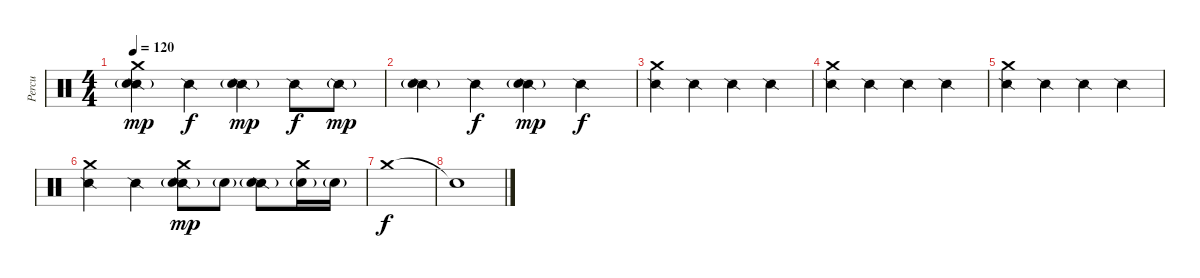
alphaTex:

\track ("Percu" "Percu") {instrument percussion}
\staff {score}
\articulation defaults
\ts (4 4)
\tempo 120
\clef neutral
\ks c
("Snare (side stick) 2" "Crash medium (hit)" "Electric Snare (hit)"{g}).4{dy mp} "Snare (side stick) 2".4{dy f} ("Snare (side stick) 2" "Electric Snare (hit)"{g}).4{dy mp} "Snare (side stick) 2".8{dy f} "Snare (side stick) 2"{g}.8{dy mp} |
("Snare (side stick) 2" "Electric Snare (hit)"{g}).4 "Snare (side stick) 2".4{dy f} ("Snare (side stick) 2" "Electric Snare (hit)"{g}).4{dy mp} "Snare (side stick) 2".4{dy f} |
("Snare (side stick) 2" "Crash medium (hit)").4 "Snare (side stick) 2".4 "Snare (side stick) 2".4 "Snare (side stick) 2".4 |
("Snare (side stick) 2" "Crash medium (hit)").4 "Snare (side stick) 2".4 "Snare (side stick) 2".4 "Snare (side stick) 2".4 |
("Snare (side stick) 2" "Crash medium (hit)").4 "Snare (side stick) 2".4 "Snare (side stick) 2".4 "Snare (side stick) 2".4 |
("Snare (side stick) 2" "Crash medium (hit)").4 "Snare (side stick) 2".4 ("Snare (side stick) 2" "Crash medium (hit)" "Electric Snare (hit)"{g}).8{dy mp} "Electric Snare (hit)"{g}.8 ("Snare (side stick) 2" "Electric Snare (hit)"{g}).8 ("Crash medium (hit)" "Electric Snare (hit)"{g}).16 "Electric Snare (hit)"{g}.16 |
"Crash medium (hit)".1{dy f} |
"Snare (hit)"{t}.1
